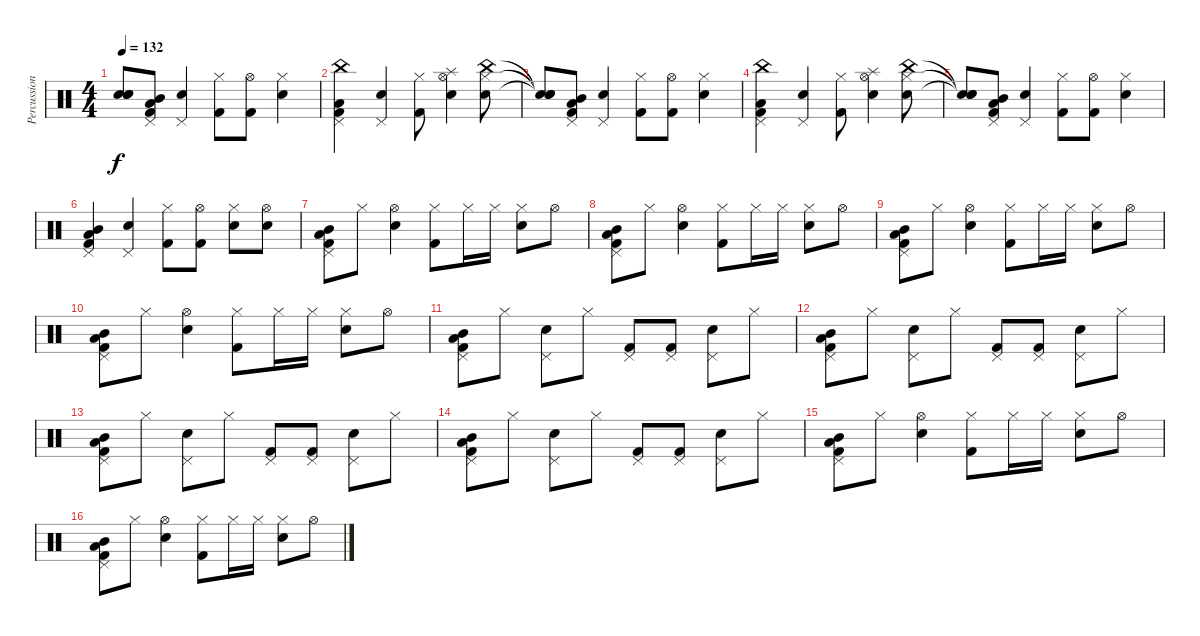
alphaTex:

\track ("Percussions" "Percussion") {instrument percussion}
\staff {score}
\articulation defaults
\ts (4 4)
\tempo 132
\clef neutral
\ks c
("Snare (hit)"{t} "Snare (hit)"{t} "Snare (hit)"{t}).8{dy f} ("Pedal Hi-Hat (hit)" "Mid Tom (hit)" "Low Tom (hit)" "Kick (hit) 2").8 ("Pedal Hi-Hat (hit)" "Snare (hit) 2").4 ("Hi-Hat (closed)" "Kick (hit) 2").8 ("Hi-Hat (open)" "Kick (hit) 2").8 ("Hi-Hat (closed)" "Snare (hit) 2").4 |
("Pedal Hi-Hat (hit)" "China (hit)" "Low Tom (hit)" "Kick (hit) 2").4 ("Pedal Hi-Hat (hit)" "Snare (hit) 2").4 ("Hi-Hat (closed)" "Kick (hit) 2").8 ("Hi-Hat (open)" "Splash (hit)" "Snare (hit) 2").4 ("Hi-Hat (closed)" "China (hit)" "Snare (hit) 2").8 |
("Snare (hit)"{t} "Snare (hit)"{t} "Snare (hit)"{t}).8 ("Pedal Hi-Hat (hit)" "Mid Tom (hit)" "Low Tom (hit)" "Kick (hit) 2").8 ("Pedal Hi-Hat (hit)" "Snare (hit) 2").4 ("Hi-Hat (closed)" "Kick (hit) 2").8 ("Hi-Hat (open)" "Kick (hit) 2").8 ("Hi-Hat (closed)" "Snare (hit) 2").4 |
("Pedal Hi-Hat (hit)" "China (hit)" "Low Tom (hit)" "Kick (hit) 2").4 ("Pedal Hi-Hat (hit)" "Snare (hit) 2").4 ("Hi-Hat (closed)" "Kick (hit) 2").8 ("Hi-Hat (open)" "Splash (hit)" "Snare (hit) 2").4 ("Hi-Hat (closed)" "China (hit)" "Snare (hit) 2").8 |
("Snare (hit)"{t} "Snare (hit)"{t} "Snare (hit)"{t}).8 ("Pedal Hi-Hat (hit)" "Mid Tom (hit)" "Low Tom (hit)" "Kick (hit) 2").8 ("Pedal Hi-Hat (hit)" "Snare (hit) 2").4 ("Hi-Hat (closed)" "Kick (hit) 2").8 ("Hi-Hat (open)" "Kick (hit) 2").8 ("Hi-Hat (closed)" "Snare (hit) 2").4 |
("Pedal Hi-Hat (hit)" "Mid Tom (hit)" "Low Tom (hit)" "Kick (hit) 2").4 ("Pedal Hi-Hat (hit)" "Snare (hit) 2").4 ("Hi-Hat (closed)" "Kick (hit) 2").8 ("Hi-Hat (open)" "Kick (hit) 2").8 ("Hi-Hat (closed)" "Snare (hit) 2").8 ("Hi-Hat (open)" "Snare (hit) 2").8 |
("Pedal Hi-Hat (hit)" "Mid Tom (hit)" "Low Tom (hit)" "Kick (hit) 2").8 "Hi-Hat (closed)".8 ("Hi-Hat (open)" "Snare (hit) 2").4 ("Hi-Hat (closed)" "Kick (hit) 2").8 "Hi-Hat (closed)".16 "Hi-Hat (closed)".16 ("Hi-Hat (closed)" "Snare (hit) 2").8 "Hi-Hat (open)".8 |
("Pedal Hi-Hat (hit)" "Mid Tom (hit)" "Low Tom (hit)" "Kick (hit) 2").8 "Hi-Hat (closed)".8 ("Hi-Hat (open)" "Snare (hit) 2").4 ("Hi-Hat (closed)" "Kick (hit) 2").8 "Hi-Hat (closed)".16 "Hi-Hat (closed)".16 ("Hi-Hat (closed)" "Snare (hit) 2").8 "Hi-Hat (open)".8 |
("Pedal Hi-Hat (hit)" "Mid Tom (hit)" "Low Tom (hit)" "Kick (hit) 2").8 "Hi-Hat (closed)".8 ("Hi-Hat (open)" "Snare (hit) 2").4 ("Hi-Hat (closed)" "Kick (hit) 2").8 "Hi-Hat (closed)".16 "Hi-Hat (closed)".16 ("Hi-Hat (closed)" "Snare (hit) 2").8 "Hi-Hat (open)".8 |
("Pedal Hi-Hat (hit)" "Mid Tom (hit)" "Low Tom (hit)" "Kick (hit) 2").8 "Hi-Hat (closed)".8 ("Hi-Hat (open)" "Snare (hit) 2").4 ("Hi-Hat (closed)" "Kick (hit) 2").8 "Hi-Hat (closed)".16 "Hi-Hat (closed)".16 ("Hi-Hat (closed)" "Snare (hit) 2").8 "Hi-Hat (open)".8 |
("Pedal Hi-Hat (hit)" "Mid Tom (hit)" "Low Tom (hit)" "Kick (hit) 2").8 "Hi-Hat (closed)".8 ("Pedal Hi-Hat (hit)" "Snare (hit) 2").8 "Hi-Hat (closed)".8 ("Pedal Hi-Hat (hit)" "Kick (hit) 2").8 ("Pedal Hi-Hat (hit)" "Kick (hit) 2").8 ("Pedal Hi-Hat (hit)" "Snare (hit) 2").8 "Hi-Hat (closed)".8 |
("Pedal Hi-Hat (hit)" "Mid Tom (hit)" "Low Tom (hit)" "Kick (hit) 2").8 "Hi-Hat (closed)".8 ("Pedal Hi-Hat (hit)" "Snare (hit) 2").8 "Hi-Hat (closed)".8 ("Pedal Hi-Hat (hit)" "Kick (hit) 2").8 ("Pedal Hi-Hat (hit)" "Kick (hit) 2").8 ("Pedal Hi-Hat (hit)" "Snare (hit) 2").8 "Hi-Hat (closed)".8 |
("Pedal Hi-Hat (hit)" "Mid Tom (hit)" "Low Tom (hit)" "Kick (hit) 2").8 "Hi-Hat (closed)".8 ("Pedal Hi-Hat (hit)" "Snare (hit) 2").8 "Hi-Hat (closed)".8 ("Pedal Hi-Hat (hit)" "Kick (hit) 2").8 ("Pedal Hi-Hat (hit)" "Kick (hit) 2").8 ("Pedal Hi-Hat (hit)" "Snare (hit) 2").8 "Hi-Hat (closed)".8 |
("Pedal Hi-Hat (hit)" "Mid Tom (hit)" "Low Tom (hit)" "Kick (hit) 2").8 "Hi-Hat (closed)".8 ("Pedal Hi-Hat (hit)" "Snare (hit) 2").8 "Hi-Hat (closed)".8 ("Pedal Hi-Hat (hit)" "Kick (hit) 2").8 ("Pedal Hi-Hat (hit)" "Kick (hit) 2").8 ("Pedal Hi-Hat (hit)" "Snare (hit) 2").8 "Hi-Hat (closed)".8 |
("Pedal Hi-Hat (hit)" "Mid Tom (hit)" "Low Tom (hit)" "Kick (hit) 2").8 "Hi-Hat (closed)".8 ("Hi-Hat (open)" "Snare (hit) 2").4 ("Hi-Hat (closed)" "Kick (hit) 2").8 "Hi-Hat (closed)".16 "Hi-Hat (closed)".16 ("Hi-Hat (closed)" "Snare (hit) 2").8 "Hi-Hat (open)".8 |
("Pedal Hi-Hat (hit)" "Mid Tom (hit)" "Low Tom (hit)" "Kick (hit) 2").8 "Hi-Hat (closed)".8 ("Hi-Hat (open)" "Snare (hit) 2").4 ("Hi-Hat (closed)" "Kick (hit) 2").8 "Hi-Hat (closed)".16 "Hi-Hat (closed)".16 ("Hi-Hat (closed)" "Snare (hit) 2").8 "Hi-Hat (open)".8
